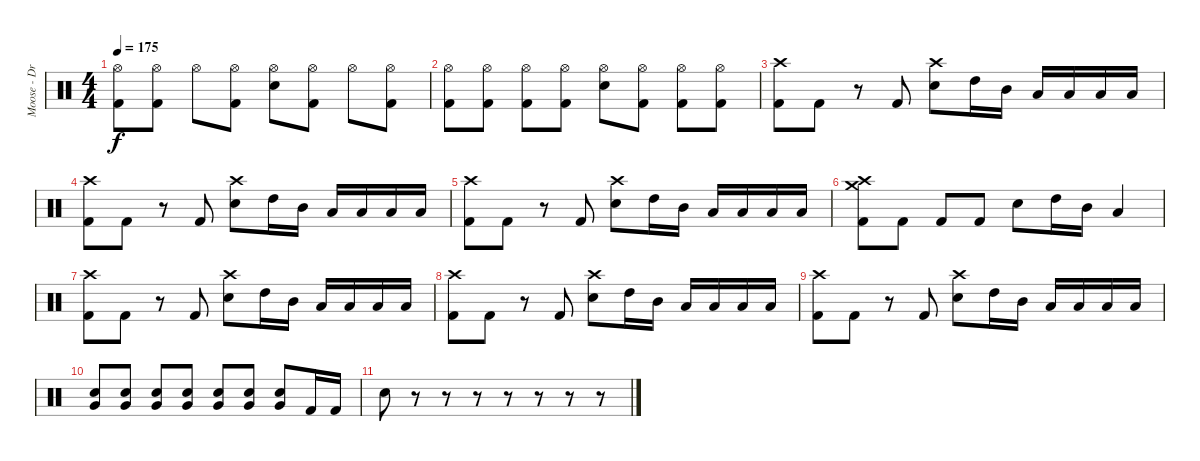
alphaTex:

\track ("Moose - Drums" "Moose - Dr") {instrument percussion}
\staff {score}
\articulation defaults
\ts (4 4)
\tempo 175
\clef neutral
\ks c
("Hi-Hat (open)" "Kick (hit) 2").8{dy f} ("Hi-Hat (open)" "Kick (hit) 2").8 "Hi-Hat (open)".8 ("Hi-Hat (open)" "Kick (hit) 2").8 ("Hi-Hat (open)" "Electric Snare (hit)").8 ("Hi-Hat (open)" "Kick (hit) 2").8 "Hi-Hat (open)".8 ("Hi-Hat (open)" "Kick (hit) 2").8 |
("Hi-Hat (open)" "Kick (hit) 2").8 ("Hi-Hat (open)" "Kick (hit) 2").8 ("Hi-Hat (open)" "Kick (hit) 2").8 ("Hi-Hat (open)" "Kick (hit) 2").8 ("Hi-Hat (open)" "Electric Snare (hit)").8 ("Hi-Hat (open)" "Kick (hit) 2").8 ("Hi-Hat (open)" "Kick (hit) 2").8 ("Hi-Hat (open)" "Kick (hit) 2").8 |
("Crash high (hit)" "Kick (hit) 2").8 "Kick (hit) 2".8 r.8 "Kick (hit) 2".8 ("Crash high (hit)" "Electric Snare (hit)").8 "High Tom (hit)".16 "Mid Tom (hit)".16 "Low Tom (hit)".16 "Low Tom (hit)".16 "Low Tom (hit)".16 "Low Tom (hit)".16 |
("Crash high (hit)" "Kick (hit) 2").8 "Kick (hit) 2".8 r.8 "Kick (hit) 2".8 ("Crash high (hit)" "Electric Snare (hit)").8 "High Tom (hit)".16 "Mid Tom (hit)".16 "Low Tom (hit)".16 "Low Tom (hit)".16 "Low Tom (hit)".16 "Low Tom (hit)".16 |
("Crash high (hit)" "Kick (hit) 2").8 "Kick (hit) 2".8 r.8 "Kick (hit) 2".8 ("Crash high (hit)" "Electric Snare (hit)").8 "High Tom (hit)".16 "Mid Tom (hit)".16 "Low Tom (hit)".16 "Low Tom (hit)".16 "Low Tom (hit)".16 "Low Tom (hit)".16 |
("Crash high (hit)" "Crash medium (hit)" "Kick (hit) 2").8 "Kick (hit) 2".8 "Kick (hit) 2".8 "Kick (hit) 2".8 "Electric Snare (hit)".8 "High Tom (hit)".16 "Mid Tom (hit)".16 "Low Tom (hit)".4 |
("Crash high (hit)" "Kick (hit) 2").8 "Kick (hit) 2".8 r.8 "Kick (hit) 2".8 ("Crash high (hit)" "Electric Snare (hit)").8 "High Tom (hit)".16 "Mid Tom (hit)".16 "Low Tom (hit)".16 "Low Tom (hit)".16 "Low Tom (hit)".16 "Low Tom (hit)".16 |
("Crash high (hit)" "Kick (hit) 2").8 "Kick (hit) 2".8 r.8 "Kick (hit) 2".8 ("Crash high (hit)" "Electric Snare (hit)").8 "High Tom (hit)".16 "Mid Tom (hit)".16 "Low Tom (hit)".16 "Low Tom (hit)".16 "Low Tom (hit)".16 "Low Tom (hit)".16 |
("Crash high (hit)" "Kick (hit) 2").8 "Kick (hit) 2".8 r.8 "Kick (hit) 2".8 ("Crash high (hit)" "Electric Snare (hit)").8 "High Tom (hit)".16 "Mid Tom (hit)".16 "Low Tom (hit)".16 "Low Tom (hit)".16 "Low Tom (hit)".16 "Low Tom (hit)".16 |
("Very Low Tom (hit)" "Electric Snare (hit)").8 ("Very Low Tom (hit)" "Electric Snare (hit)").8 ("Very Low Tom (hit)" "Electric Snare (hit)").8 ("Very Low Tom (hit)" "Electric Snare (hit)").8 ("Very Low Tom (hit)" "Electric Snare (hit)").8 ("Very Low Tom (hit)" "Electric Snare (hit)").8 ("Very Low Tom (hit)" "Electric Snare (hit)").8 "Kick (hit) 2".16 "Kick (hit) 2".16 |
"Electric Snare (hit)".8 r.8 r.8 r.8 r.8 r.8 r.8 r.8
